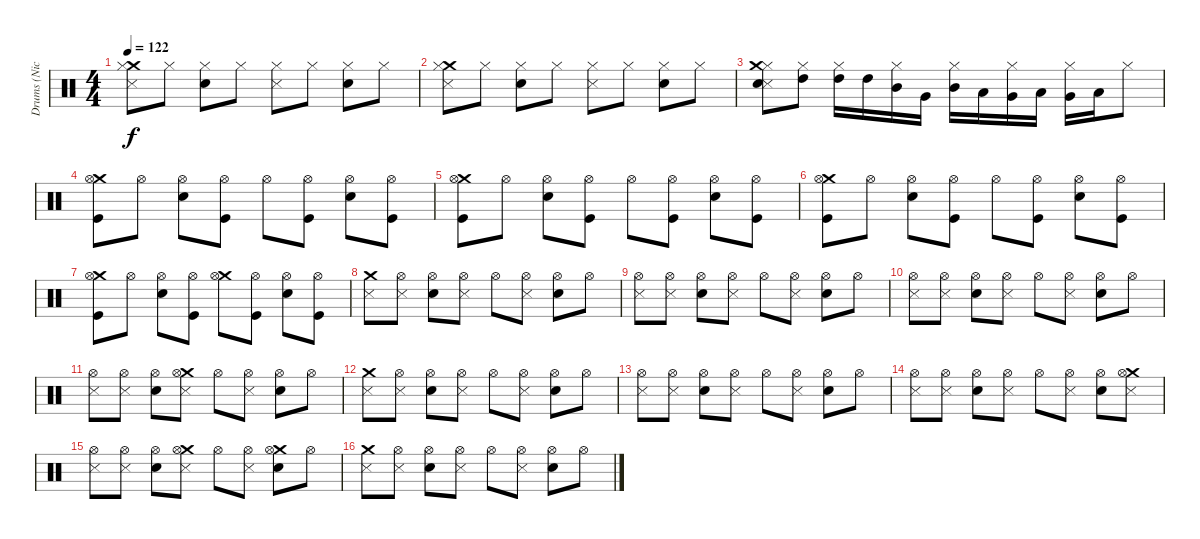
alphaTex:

\track ("Drums (Nick Menza)" "Drums (Nic") {instrument percussion}
\staff {score}
\articulation defaults
\ts (4 4)
\tempo 122
\clef neutral
\ks c
("Crash medium (hit)" "Hi-Hat (closed)" "Metronome (hit)").8{dy f} "Hi-Hat (closed)".8 ("Hi-Hat (closed)" "Electric Snare (hit)").8 "Hi-Hat (closed)".8 ("Hi-Hat (closed)" "Metronome (hit)").8 "Hi-Hat (closed)".8 ("Hi-Hat (closed)" "Electric Snare (hit)").8 "Hi-Hat (closed)".8 |
("Crash medium (hit)" "Hi-Hat (closed)" "Metronome (hit)").8 "Hi-Hat (closed)".8 ("Hi-Hat (closed)" "Electric Snare (hit)").8 "Hi-Hat (closed)".8 ("Hi-Hat (closed)" "Metronome (hit)").8 "Hi-Hat (closed)".8 ("Hi-Hat (closed)" "Electric Snare (hit)").8 "Hi-Hat (closed)".8 |
("Hi-Hat (closed)" "Metronome (hit)" "Electric Snare (hit)" "Crash medium (hit)").8 ("Hi-Hat (closed)" "High Tom (hit)").8 ("Hi-Hat (closed)" "High Tom (hit)").16 "High Tom (hit)".16 ("Hi-Hat (closed)" "Mid Tom (hit)").16 "Very Low Tom (hit)".16 ("Hi-Hat (closed)" "Mid Tom (hit)").16 "Low Tom (hit)".16 ("Hi-Hat (closed)" "Very Low Tom (hit)").16 "Low Tom (hit)".16 ("Hi-Hat (closed)" "Very Low Tom (hit)").16 "Low Floor Tom (hit)".16 "Hi-Hat (closed)".8 |
("Crash medium (hit)" "Hi-Hat (open)" "Kick (hit)").8 "Hi-Hat (open)".8 ("Hi-Hat (open)" "Electric Snare (hit)").8 ("Hi-Hat (open)" "Kick (hit)").8 "Hi-Hat (open)".8 ("Hi-Hat (open)" "Kick (hit)").8 ("Hi-Hat (open)" "Electric Snare (hit)").8 ("Hi-Hat (open)" "Kick (hit)").8 |
("Crash medium (hit)" "Hi-Hat (open)" "Kick (hit)").8 "Hi-Hat (open)".8 ("Hi-Hat (open)" "Electric Snare (hit)").8 ("Hi-Hat (open)" "Kick (hit)").8 "Hi-Hat (open)".8 ("Hi-Hat (open)" "Kick (hit)").8 ("Hi-Hat (open)" "Electric Snare (hit)").8 ("Hi-Hat (open)" "Kick (hit)").8 |
("Crash medium (hit)" "Hi-Hat (open)" "Kick (hit)").8 "Hi-Hat (open)".8 ("Hi-Hat (open)" "Electric Snare (hit)").8 ("Hi-Hat (open)" "Kick (hit)").8 "Hi-Hat (open)".8 ("Hi-Hat (open)" "Kick (hit)").8 ("Hi-Hat (open)" "Electric Snare (hit)").8 ("Hi-Hat (open)" "Kick (hit)").8 |
("Crash medium (hit)" "Hi-Hat (open)" "Kick (hit)").8 "Hi-Hat (open)".8 ("Hi-Hat (open)" "Electric Snare (hit)").8 ("Hi-Hat (open)" "Kick (hit)").8 ("Crash medium (hit)" "Hi-Hat (open)").8 ("Hi-Hat (open)" "Kick (hit)").8 ("Hi-Hat (open)" "Electric Snare (hit)").8 ("Hi-Hat (open)" "Kick (hit)").8 |
("Crash medium (hit)" "Metronome (hit)").8 ("Hi-Hat (open)" "Metronome (hit)").8 ("Hi-Hat (open)" "Electric Snare (hit)").8 ("Hi-Hat (open)" "Metronome (hit)").8 "Hi-Hat (open)".8 ("Metronome (hit)" "Hi-Hat (open)").8 ("Electric Snare (hit)" "Hi-Hat (open)").8 "Hi-Hat (open)".8 |
("Hi-Hat (open)" "Metronome (hit)").8 ("Hi-Hat (open)" "Metronome (hit)").8 ("Hi-Hat (open)" "Electric Snare (hit)").8 ("Hi-Hat (open)" "Metronome (hit)").8 "Hi-Hat (open)".8 ("Metronome (hit)" "Hi-Hat (open)").8 ("Electric Snare (hit)" "Hi-Hat (open)").8 "Hi-Hat (open)".8 |
("Hi-Hat (open)" "Metronome (hit)").8 ("Hi-Hat (open)" "Metronome (hit)").8 ("Hi-Hat (open)" "Electric Snare (hit)").8 ("Hi-Hat (open)" "Metronome (hit)").8 "Hi-Hat (open)".8 ("Metronome (hit)" "Hi-Hat (open)").8 ("Electric Snare (hit)" "Hi-Hat (open)").8 "Hi-Hat (open)".8 |
("Hi-Hat (open)" "Metronome (hit)").8 ("Hi-Hat (open)" "Metronome (hit)").8 ("Hi-Hat (open)" "Electric Snare (hit)").8 ("Crash medium (hit)" "Hi-Hat (open)" "Metronome (hit)").8 "Hi-Hat (open)".8 ("Metronome (hit)" "Hi-Hat (open)").8 ("Electric Snare (hit)" "Hi-Hat (open)").8 "Hi-Hat (open)".8 |
("Crash medium (hit)" "Metronome (hit)").8 ("Hi-Hat (open)" "Metronome (hit)").8 ("Hi-Hat (open)" "Electric Snare (hit)").8 ("Hi-Hat (open)" "Metronome (hit)").8 "Hi-Hat (open)".8 ("Metronome (hit)" "Hi-Hat (open)").8 ("Electric Snare (hit)" "Hi-Hat (open)").8 "Hi-Hat (open)".8 |
("Hi-Hat (open)" "Metronome (hit)").8 ("Hi-Hat (open)" "Metronome (hit)").8 ("Hi-Hat (open)" "Electric Snare (hit)").8 ("Hi-Hat (open)" "Metronome (hit)").8 "Hi-Hat (open)".8 ("Metronome (hit)" "Hi-Hat (open)").8 ("Electric Snare (hit)" "Hi-Hat (open)").8 "Hi-Hat (open)".8 |
("Hi-Hat (open)" "Metronome (hit)").8 ("Hi-Hat (open)" "Metronome (hit)").8 ("Hi-Hat (open)" "Electric Snare (hit)").8 ("Hi-Hat (open)" "Metronome (hit)").8 "Hi-Hat (open)".8 ("Metronome (hit)" "Hi-Hat (open)").8 ("Electric Snare (hit)" "Hi-Hat (open)").8 ("Metronome (hit)" "Crash medium (hit)" "Hi-Hat (open)").8 |
("Hi-Hat (open)" "Metronome (hit)").8 ("Hi-Hat (open)" "Metronome (hit)").8 ("Hi-Hat (open)" "Electric Snare (hit)").8 ("Crash medium (hit)" "Hi-Hat (open)" "Metronome (hit)").8 "Hi-Hat (open)".8 ("Metronome (hit)" "Hi-Hat (open)").8 ("Crash medium (hit)" "Electric Snare (hit)" "Hi-Hat (open)").8 "Hi-Hat (open)".8 |
("Crash medium (hit)" "Metronome (hit)").8 ("Hi-Hat (open)" "Metronome (hit)").8{volume 16} ("Hi-Hat (open)" "Electric Snare (hit)").8{volume 15} ("Hi-Hat (open)" "Metronome (hit)").8{volume 15} "Hi-Hat (open)".8{volume 15} ("Metronome (hit)" "Hi-Hat (open)").8{volume 15} ("Electric Snare (hit)" "Hi-Hat (open)").8{volume 14} "Hi-Hat (open)".8{volume 14}
